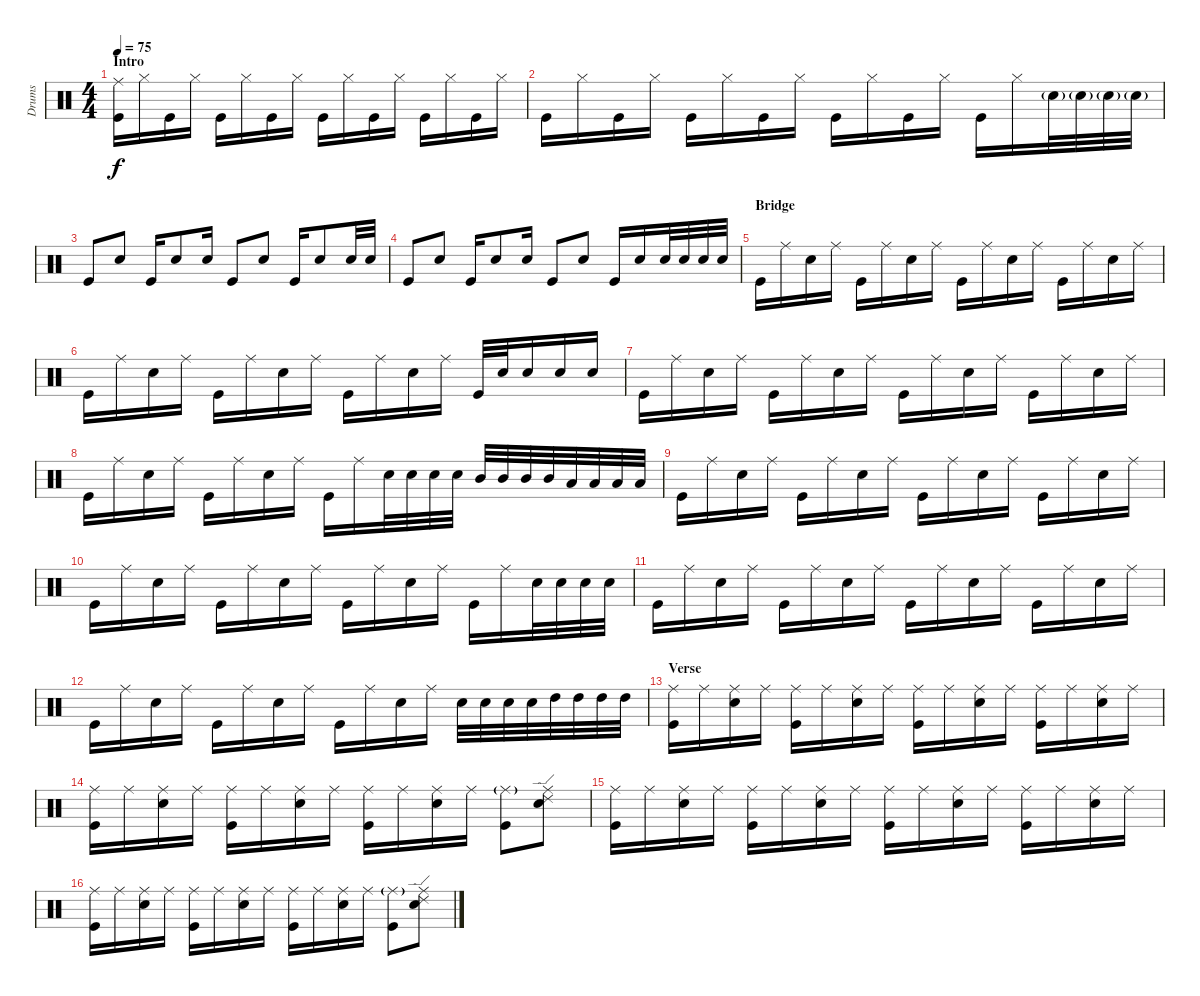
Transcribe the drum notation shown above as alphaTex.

\track ("Drums" "Drums") {instrument percussion}
\staff {score}
\articulation defaults
\ts (4 4)
\section ("" "Intro")
\tempo 75
\clef neutral
\ks c
("Ride (middle)" "Kick (hit)").16{dy f} "Hi-Hat (closed)".16 "Kick (hit)".16 "Hi-Hat (closed)".16 "Kick (hit)".16 "Hi-Hat (closed)".16 "Kick (hit)".16 "Hi-Hat (closed)".16 "Kick (hit)".16 "Hi-Hat (closed)".16 "Kick (hit)".16 "Hi-Hat (closed)".16 "Kick (hit)".16 "Hi-Hat (closed)".16 "Kick (hit)".16 "Hi-Hat (closed)".16 |
"Kick (hit)".16 "Hi-Hat (closed)".16 "Kick (hit)".16 "Hi-Hat (closed)".16 "Kick (hit)".16 "Hi-Hat (closed)".16 "Kick (hit)".16 "Hi-Hat (closed)".16 "Kick (hit)".16 "Hi-Hat (closed)".16 "Kick (hit)".16 "Hi-Hat (closed)".16 "Kick (hit)".16 "Hi-Hat (closed)".16 "Snare (hit) 2"{g}.32 "Snare (hit) 2"{g}.32 "Snare (hit) 2"{g}.32 "Snare (hit) 2"{g}.32 |
"Kick (hit)".8 "Snare (hit) 2".8 "Kick (hit)".16 "Snare (hit) 2".8 "Snare (hit) 2".16 "Kick (hit)".8 "Snare (hit) 2".8 "Kick (hit)".16 "Snare (hit) 2".8 "Snare (hit) 2".32 "Snare (hit) 2".32 |
"Kick (hit)".8 "Snare (hit) 2".8 "Kick (hit)".16 "Snare (hit) 2".8 "Snare (hit) 2".16 "Kick (hit)".8 "Snare (hit) 2".8 "Kick (hit)".16 "Snare (hit) 2".16 "Snare (hit) 2".32 "Snare (hit) 2".32 "Snare (hit) 2".32 "Snare (hit) 2".32 |
\section ("" "Bridge")
"Kick (hit)".16 "Ride (middle)".16 "Snare (hit) 2".16 "Ride (middle)".16 "Kick (hit)".16 "Ride (middle)".16 "Snare (hit) 2".16 "Ride (middle)".16 "Kick (hit)".16 "Ride (middle)".16 "Snare (hit) 2".16 "Ride (middle)".16 "Kick (hit)".16 "Ride (middle)".16 "Snare (hit) 2".16 "Ride (middle)".16 |
"Kick (hit)".16 "Ride (middle)".16 "Snare (hit) 2".16 "Ride (middle)".16 "Kick (hit)".16 "Ride (middle)".16 "Snare (hit) 2".16 "Ride (middle)".16 "Kick (hit)".16 "Ride (middle)".16 "Snare (hit) 2".16 "Ride (middle)".16 "Kick (hit)".32 "Snare (hit) 2".32 "Snare (hit) 2".16 "Snare (hit) 2".16 "Snare (hit) 2".16 |
"Kick (hit)".16 "Ride (middle)".16 "Snare (hit) 2".16 "Ride (middle)".16 "Kick (hit)".16 "Ride (middle)".16 "Snare (hit) 2".16 "Ride (middle)".16 "Kick (hit)".16 "Ride (middle)".16 "Snare (hit) 2".16 "Ride (middle)".16 "Kick (hit)".16 "Ride (middle)".16 "Snare (hit) 2".16 "Ride (middle)".16 |
"Kick (hit)".16 "Ride (middle)".16 "Snare (hit) 2".16 "Ride (middle)".16 "Kick (hit)".16 "Ride (middle)".16 "Snare (hit) 2".16 "Ride (middle)".16 "Kick (hit)".16 "Ride (middle)".16 "Snare (hit) 2".32 "Snare (hit) 2".32 "Snare (hit) 2".32 "Snare (hit) 2".32 "Mid Tom (hit)".32 "Mid Tom (hit)".32 "Mid Tom (hit)".32 "Mid Tom (hit)".32 "Low Tom (hit)".32 "Low Tom (hit)".32 "Low Tom (hit)".32 "Low Tom (hit)".32 |
"Kick (hit)".16 "Ride (middle)".16 "Snare (hit) 2".16 "Ride (middle)".16 "Kick (hit)".16 "Ride (middle)".16 "Snare (hit) 2".16 "Ride (middle)".16 "Kick (hit)".16 "Ride (middle)".16 "Snare (hit) 2".16 "Ride (middle)".16 "Kick (hit)".16 "Ride (middle)".16 "Snare (hit) 2".16 "Ride (middle)".16 |
"Kick (hit)".16 "Ride (middle)".16 "Snare (hit) 2".16 "Ride (middle)".16 "Kick (hit)".16 "Ride (middle)".16 "Snare (hit) 2".16 "Ride (middle)".16 "Kick (hit)".16 "Ride (middle)".16 "Snare (hit) 2".16 "Ride (middle)".16 "Kick (hit)".16 "Ride (middle)".16 "Snare (hit) 2".32 "Snare (hit) 2".32 "Snare (hit) 2".32 "Snare (hit) 2".32 |
"Kick (hit)".16 "Ride (middle)".16 "Snare (hit) 2".16 "Ride (middle)".16 "Kick (hit)".16 "Ride (middle)".16 "Snare (hit) 2".16 "Ride (middle)".16 "Kick (hit)".16 "Ride (middle)".16 "Snare (hit) 2".16 "Ride (middle)".16 "Kick (hit)".16 "Ride (middle)".16 "Snare (hit) 2".16 "Ride (middle)".16 |
"Kick (hit)".16 "Ride (middle)".16 "Snare (hit) 2".16 "Ride (middle)".16 "Kick (hit)".16 "Ride (middle)".16 "Snare (hit) 2".16 "Ride (middle)".16 "Kick (hit)".16 "Ride (middle)".16 "Snare (hit) 2".16 "Ride (middle)".16 "Snare (hit) 2".32 "Snare (hit) 2".32 "Snare (hit) 2".32 "Snare (hit) 2".32 "High Tom (hit)".32 "High Tom (hit)".32 "High Tom (hit)".32 "High Tom (hit)".32 |
\section ("" "Verse")
("Ride (middle)" "Kick (hit)").16 "Ride (middle)".16 ("Ride (middle)" "Snare (hit) 2").16 "Ride (middle)".16 ("Ride (middle)" "Kick (hit)").16 "Ride (middle)".16 ("Ride (middle)" "Snare (hit) 2").16 "Ride (middle)".16 ("Ride (middle)" "Kick (hit)").16 "Ride (middle)".16 ("Ride (middle)" "Snare (hit) 2").16 "Ride (middle)".16 ("Ride (middle)" "Kick (hit)").16 "Ride (middle)".16 ("Ride (middle)" "Snare (hit) 2").16 "Ride (middle)".16 |
("Ride (middle)" "Kick (hit)").16 "Ride (middle)".16 ("Ride (middle)" "Snare (hit) 2").16 "Ride (middle)".16 ("Ride (middle)" "Kick (hit)").16 "Ride (middle)".16 ("Ride (middle)" "Snare (hit) 2").16 "Ride (middle)".16 ("Ride (middle)" "Kick (hit)").16 "Ride (middle)".16 ("Ride (middle)" "Snare (hit) 2").16 "Ride (middle)".16 ("Ride (middle)"{g} "Kick (hit)").8 ("Ride (edge) 2" "Ride (middle)" "Snare (hit) 2").8 |
("Ride (middle)" "Kick (hit)").16 "Ride (middle)".16 ("Ride (middle)" "Snare (hit) 2").16 "Ride (middle)".16 ("Ride (middle)" "Kick (hit)").16 "Ride (middle)".16 ("Ride (middle)" "Snare (hit) 2").16 "Ride (middle)".16 ("Ride (middle)" "Kick (hit)").16 "Ride (middle)".16 ("Ride (middle)" "Snare (hit) 2").16 "Ride (middle)".16 ("Ride (middle)" "Kick (hit)").16 "Ride (middle)".16 ("Ride (middle)" "Snare (hit) 2").16 "Ride (middle)".16 |
("Ride (middle)" "Kick (hit)").16 "Ride (middle)".16 ("Ride (middle)" "Snare (hit) 2").16 "Ride (middle)".16 ("Ride (middle)" "Kick (hit)").16 "Ride (middle)".16 ("Ride (middle)" "Snare (hit) 2").16 "Ride (middle)".16 ("Ride (middle)" "Kick (hit)").16 "Ride (middle)".16 ("Ride (middle)" "Snare (hit) 2").16 "Ride (middle)".16 ("Ride (middle)"{g} "Kick (hit)").8 ("Ride (edge) 2" "Ride (middle)" "Snare (hit) 2").8
